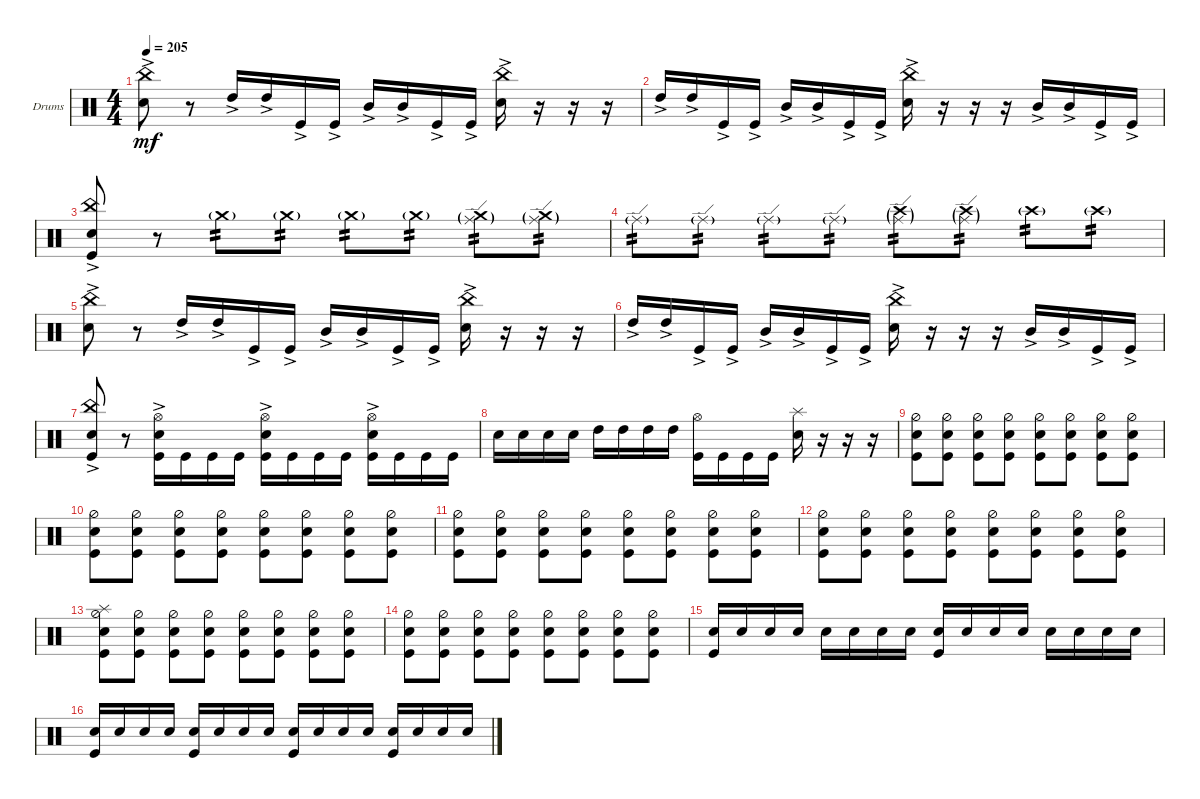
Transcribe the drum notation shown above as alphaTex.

\defaultSystemsLayout 4
\bracketExtendMode groupsimilarinstruments
\firstSystemTrackNameOrientation horizontal
\otherSystemsTrackNameOrientation horizontal
\track ("Drumkit" "Drums") {instrument percussion}
\staff {score}
\articulation defaults
\ts (4 4)
\tempo 205
\clef neutral
\ks c
("Snare (hit) 2"{ac} "China (hit)"{ac}).8{dy mf} r.8 "High Tom (hit)"{ac}.16 "High Tom (hit)"{ac}.16 "Kick (hit)"{ac}.16 "Kick (hit)"{ac}.16 "Mid Tom (hit)"{ac}.16 "Mid Tom (hit)"{ac}.16 "Kick (hit)"{ac}.16 "Kick (hit)"{ac}.16 ("Snare (hit) 2"{ac} "China (hit)"{ac}).16 r.16 r.16 r.16 |
"High Tom (hit)"{ac}.16 "High Tom (hit)"{ac}.16 "Kick (hit)"{ac}.16 "Kick (hit)"{ac}.16 "Mid Tom (hit)"{ac}.16 "Mid Tom (hit)"{ac}.16 "Kick (hit)"{ac}.16 "Kick (hit)"{ac}.16 ("Snare (hit) 2"{ac} "China (hit)"{ac}).16 r.16 r.16 r.16 "Mid Tom (hit)"{ac}.16 "Mid Tom (hit)"{ac}.16 "Kick (hit)"{ac}.16 "Kick (hit)"{ac}.16 |
("Snare (hit) 2"{ac} "Kick (hit)"{ac} "China (hit)"{ac}).8 r.8 "Crash medium (hit)"{g}.8{tp 2} "Crash medium (hit)"{g}.8{tp 2} "Crash medium (hit)"{g}.8{tp 2} "Crash medium (hit)"{g}.8{tp 2} ("Ride (edge)"{g} "Crash medium (hit)"{g}).8{tp 2} ("Ride (edge)"{g} "Crash medium (hit)"{g}).8{tp 2} |
"Ride (edge)"{g}.8{tp 2} "Ride (edge)"{g}.8{tp 2} "Ride (edge)"{g}.8{tp 2} "Ride (edge)"{g}.8{tp 2} ("Crash high (hit)"{g} "Ride (edge)"{g}).8{tp 2} ("Crash high (hit)"{g} "Ride (edge)"{g}).8{tp 2} "Crash high (hit)"{g}.8{tp 2} "Crash high (hit)"{g}.8{tp 2} |
("Snare (hit) 2"{ac} "China (hit)"{ac}).8 r.8 "High Tom (hit)"{ac}.16 "High Tom (hit)"{ac}.16 "Kick (hit)"{ac}.16 "Kick (hit)"{ac}.16 "Mid Tom (hit)"{ac}.16 "Mid Tom (hit)"{ac}.16 "Kick (hit)"{ac}.16 "Kick (hit)"{ac}.16 ("Snare (hit) 2"{ac} "China (hit)"{ac}).16 r.16 r.16 r.16 |
"High Tom (hit)"{ac}.16 "High Tom (hit)"{ac}.16 "Kick (hit)"{ac}.16 "Kick (hit)"{ac}.16 "Mid Tom (hit)"{ac}.16 "Mid Tom (hit)"{ac}.16 "Kick (hit)"{ac}.16 "Kick (hit)"{ac}.16 ("Snare (hit) 2"{ac} "China (hit)"{ac}).16 r.16 r.16 r.16 "Mid Tom (hit)"{ac}.16 "Mid Tom (hit)"{ac}.16 "Kick (hit)"{ac}.16 "Kick (hit)"{ac}.16 |
("Snare (hit) 2"{ac} "Kick (hit)"{ac} "China (hit)"{ac}).8 r.8 ("Snare (hit) 2"{ac} "Kick (hit)" "Hi-Hat (open)").16 "Kick (hit)".16 "Kick (hit)".16 "Kick (hit)".16 ("Snare (hit) 2"{ac} "Kick (hit)" "Hi-Hat (open)").16 "Kick (hit)".16 "Kick (hit)".16 "Kick (hit)".16 ("Snare (hit) 2"{ac} "Kick (hit)" "Hi-Hat (open)"{ac}).16 "Kick (hit)".16 "Kick (hit)".16 "Kick (hit)".16 |
"Snare (hit) 2".16 "Snare (hit) 2".16 "Snare (hit) 2".16 "Snare (hit) 2".16 "High Tom (hit)".16 "High Tom (hit)".16 "High Tom (hit)".16 "High Tom (hit)".16 ("Hi-Hat (open)" "Kick (hit)").16 "Kick (hit)".16 "Kick (hit)".16 "Kick (hit)".16 ("Snare (hit) 2" "Splash (hit)").16 r.16 r.16 r.16 |
("Snare (hit) 2" "Kick (hit)" "Hi-Hat (half)").8 ("Snare (hit) 2" "Kick (hit)" "Hi-Hat (half)").8 ("Snare (hit) 2" "Kick (hit)" "Hi-Hat (half)").8 ("Snare (hit) 2" "Kick (hit)" "Hi-Hat (half)").8 ("Snare (hit) 2" "Kick (hit)" "Hi-Hat (half)").8 ("Snare (hit) 2" "Kick (hit)" "Hi-Hat (half)").8 ("Snare (hit) 2" "Kick (hit)" "Hi-Hat (half)").8 ("Snare (hit) 2" "Kick (hit)" "Hi-Hat (half)").8 |
("Snare (hit) 2" "Kick (hit)" "Hi-Hat (half)").8 ("Snare (hit) 2" "Kick (hit)" "Hi-Hat (half)").8 ("Snare (hit) 2" "Kick (hit)" "Hi-Hat (half)").8 ("Snare (hit) 2" "Kick (hit)" "Hi-Hat (half)").8 ("Snare (hit) 2" "Kick (hit)" "Hi-Hat (half)").8 ("Snare (hit) 2" "Kick (hit)" "Hi-Hat (half)").8 ("Snare (hit) 2" "Kick (hit)" "Hi-Hat (half)").8 ("Snare (hit) 2" "Kick (hit)" "Hi-Hat (half)").8 |
("Snare (hit) 2" "Kick (hit)" "Hi-Hat (half)").8 ("Snare (hit) 2" "Kick (hit)" "Hi-Hat (half)").8 ("Snare (hit) 2" "Kick (hit)" "Hi-Hat (half)").8 ("Snare (hit) 2" "Kick (hit)" "Hi-Hat (half)").8 ("Snare (hit) 2" "Kick (hit)" "Hi-Hat (half)").8 ("Snare (hit) 2" "Kick (hit)" "Hi-Hat (half)").8 ("Snare (hit) 2" "Kick (hit)" "Hi-Hat (half)").8 ("Snare (hit) 2" "Kick (hit)" "Hi-Hat (half)").8 |
("Snare (hit) 2" "Kick (hit)" "Hi-Hat (half)").8 ("Snare (hit) 2" "Kick (hit)" "Hi-Hat (half)").8 ("Snare (hit) 2" "Kick (hit)" "Hi-Hat (half)").8 ("Snare (hit) 2" "Kick (hit)" "Hi-Hat (half)").8 ("Snare (hit) 2" "Kick (hit)" "Hi-Hat (half)").8 ("Snare (hit) 2" "Kick (hit)" "Hi-Hat (half)").8 ("Snare (hit) 2" "Kick (hit)" "Hi-Hat (half)").8 ("Snare (hit) 2" "Kick (hit)" "Hi-Hat (half)").8 |
("Snare (hit) 2" "Kick (hit)" "Hi-Hat (half)" "Splash (hit)").8 ("Snare (hit) 2" "Kick (hit)" "Hi-Hat (half)").8 ("Snare (hit) 2" "Kick (hit)" "Hi-Hat (half)").8 ("Snare (hit) 2" "Kick (hit)" "Hi-Hat (half)").8 ("Snare (hit) 2" "Kick (hit)" "Hi-Hat (half)").8 ("Snare (hit) 2" "Kick (hit)" "Hi-Hat (half)").8 ("Snare (hit) 2" "Kick (hit)" "Hi-Hat (half)").8 ("Snare (hit) 2" "Kick (hit)" "Hi-Hat (half)").8 |
("Snare (hit) 2" "Kick (hit)" "Hi-Hat (half)").8 ("Snare (hit) 2" "Kick (hit)" "Hi-Hat (half)").8 ("Snare (hit) 2" "Kick (hit)" "Hi-Hat (half)").8 ("Snare (hit) 2" "Kick (hit)" "Hi-Hat (half)").8 ("Snare (hit) 2" "Kick (hit)" "Hi-Hat (half)").8 ("Snare (hit) 2" "Kick (hit)" "Hi-Hat (half)").8 ("Snare (hit) 2" "Kick (hit)" "Hi-Hat (half)").8 ("Snare (hit) 2" "Kick (hit)" "Hi-Hat (half)").8 |
("Snare (hit) 2" "Kick (hit)").16 "Snare (hit) 2".16 "Snare (hit) 2".16 "Snare (hit) 2".16 "Snare (hit) 2".16 "Snare (hit) 2".16 "Snare (hit) 2".16 "Snare (hit) 2".16 ("Snare (hit) 2" "Kick (hit)").16 "Snare (hit) 2".16 "Snare (hit) 2".16 "Snare (hit) 2".16 "Snare (hit) 2".16 "Snare (hit) 2".16 "Snare (hit) 2".16 "Snare (hit) 2".16 |
("Snare (hit) 2" "Kick (hit)").16 "Snare (hit) 2".16 "Snare (hit) 2".16 "Snare (hit) 2".16 ("Snare (hit) 2" "Kick (hit)").16 "Snare (hit) 2".16 "Snare (hit) 2".16 "Snare (hit) 2".16 ("Snare (hit) 2" "Kick (hit)").16 "Snare (hit) 2".16 "Snare (hit) 2".16 "Snare (hit) 2".16 ("Snare (hit) 2" "Kick (hit)").16 "Snare (hit) 2".16 "Snare (hit) 2".16 "Snare (hit) 2".16
